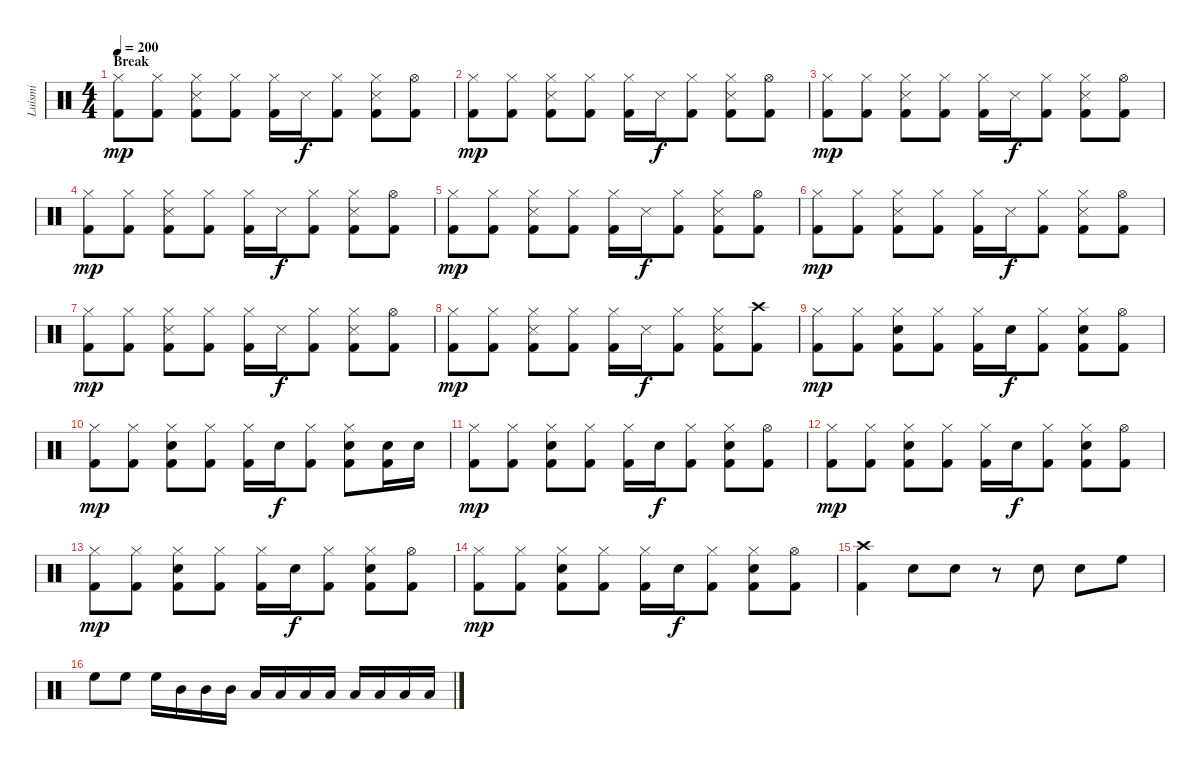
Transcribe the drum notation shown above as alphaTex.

\track ("Luismi" "Luismi") {instrument percussion}
\staff {score}
\articulation defaults
\ts (4 4)
\section ("" "Break")
\tempo 200
\clef neutral
\ks c
("Hi-Hat (closed)" "Kick (hit) 2").8{dy mp volume 11} ("Hi-Hat (closed)" "Kick (hit) 2").8 ("Hi-Hat (closed)" "Snare (side stick) 3" "Kick (hit) 2").8 ("Hi-Hat (closed)" "Kick (hit) 2").8 ("Hi-Hat (closed)" "Kick (hit) 2").16 "Snare (side stick) 3".16{dy f} ("Hi-Hat (closed)" "Kick (hit) 2").8 ("Hi-Hat (closed)" "Snare (side stick) 3" "Kick (hit) 2").8 ("Hi-Hat (open)" "Kick (hit) 2").8 |
("Hi-Hat (closed)" "Kick (hit) 2").8{dy mp} ("Hi-Hat (closed)" "Kick (hit) 2").8 ("Hi-Hat (closed)" "Snare (side stick) 3" "Kick (hit) 2").8 ("Hi-Hat (closed)" "Kick (hit) 2").8 ("Hi-Hat (closed)" "Kick (hit) 2").16 "Snare (side stick) 3".16{dy f} ("Hi-Hat (closed)" "Kick (hit) 2").8 ("Hi-Hat (closed)" "Snare (side stick) 3" "Kick (hit) 2").8 ("Hi-Hat (open)" "Kick (hit) 2").8 |
("Hi-Hat (closed)" "Kick (hit) 2").8{dy mp} ("Hi-Hat (closed)" "Kick (hit) 2").8 ("Hi-Hat (closed)" "Snare (side stick) 3" "Kick (hit) 2").8 ("Hi-Hat (closed)" "Kick (hit) 2").8 ("Hi-Hat (closed)" "Kick (hit) 2").16 "Snare (side stick) 3".16{dy f} ("Hi-Hat (closed)" "Kick (hit) 2").8 ("Hi-Hat (closed)" "Snare (side stick) 3" "Kick (hit) 2").8 ("Hi-Hat (open)" "Kick (hit) 2").8 |
("Hi-Hat (closed)" "Kick (hit) 2").8{dy mp} ("Hi-Hat (closed)" "Kick (hit) 2").8 ("Hi-Hat (closed)" "Snare (side stick) 3" "Kick (hit) 2").8 ("Hi-Hat (closed)" "Kick (hit) 2").8 ("Hi-Hat (closed)" "Kick (hit) 2").16 "Snare (side stick) 3".16{dy f} ("Hi-Hat (closed)" "Kick (hit) 2").8 ("Hi-Hat (closed)" "Snare (side stick) 3" "Kick (hit) 2").8 ("Hi-Hat (open)" "Kick (hit) 2").8 |
("Hi-Hat (closed)" "Kick (hit) 2").8{dy mp} ("Hi-Hat (closed)" "Kick (hit) 2").8 ("Hi-Hat (closed)" "Snare (side stick) 3" "Kick (hit) 2").8 ("Hi-Hat (closed)" "Kick (hit) 2").8 ("Hi-Hat (closed)" "Kick (hit) 2").16 "Snare (side stick) 3".16{dy f} ("Hi-Hat (closed)" "Kick (hit) 2").8 ("Hi-Hat (closed)" "Snare (side stick) 3" "Kick (hit) 2").8 ("Hi-Hat (open)" "Kick (hit) 2").8 |
("Hi-Hat (closed)" "Kick (hit) 2").8{dy mp} ("Hi-Hat (closed)" "Kick (hit) 2").8 ("Hi-Hat (closed)" "Snare (side stick) 3" "Kick (hit) 2").8 ("Hi-Hat (closed)" "Kick (hit) 2").8 ("Hi-Hat (closed)" "Kick (hit) 2").16 "Snare (side stick) 3".16{dy f} ("Hi-Hat (closed)" "Kick (hit) 2").8 ("Hi-Hat (closed)" "Snare (side stick) 3" "Kick (hit) 2").8 ("Hi-Hat (open)" "Kick (hit) 2").8 |
("Hi-Hat (closed)" "Kick (hit) 2").8{dy mp} ("Hi-Hat (closed)" "Kick (hit) 2").8 ("Hi-Hat (closed)" "Snare (side stick) 3" "Kick (hit) 2").8 ("Hi-Hat (closed)" "Kick (hit) 2").8 ("Hi-Hat (closed)" "Kick (hit) 2").16 "Snare (side stick) 3".16{dy f} ("Hi-Hat (closed)" "Kick (hit) 2").8 ("Hi-Hat (closed)" "Snare (side stick) 3" "Kick (hit) 2").8 ("Hi-Hat (open)" "Kick (hit) 2").8 |
("Hi-Hat (closed)" "Kick (hit) 2").8{dy mp} ("Hi-Hat (closed)" "Kick (hit) 2").8 ("Hi-Hat (closed)" "Snare (side stick) 3" "Kick (hit) 2").8 ("Hi-Hat (closed)" "Kick (hit) 2").8 ("Hi-Hat (closed)" "Kick (hit) 2").16 "Snare (side stick) 3".16{dy f} ("Hi-Hat (closed)" "Kick (hit) 2").8 ("Hi-Hat (closed)" "Snare (side stick) 3" "Kick (hit) 2").8 ("Crash high (hit)" "Kick (hit) 2").8 |
("Hi-Hat (closed)" "Kick (hit) 2").8{dy mp volume 13} ("Hi-Hat (closed)" "Kick (hit) 2").8 ("Hi-Hat (closed)" "Electric Snare (hit)" "Kick (hit) 2").8 ("Hi-Hat (closed)" "Kick (hit) 2").8 ("Hi-Hat (closed)" "Kick (hit) 2").16 "Electric Snare (hit)".16{dy f} ("Hi-Hat (closed)" "Kick (hit) 2").8 ("Hi-Hat (closed)" "Electric Snare (hit)" "Kick (hit) 2").8 ("Hi-Hat (open)" "Kick (hit) 2").8 |
("Hi-Hat (closed)" "Kick (hit) 2").8{dy mp} ("Hi-Hat (closed)" "Kick (hit) 2").8 ("Hi-Hat (closed)" "Electric Snare (hit)" "Kick (hit) 2").8 ("Hi-Hat (closed)" "Kick (hit) 2").8 ("Hi-Hat (closed)" "Kick (hit) 2").16 "Electric Snare (hit)".16{dy f} ("Hi-Hat (closed)" "Kick (hit) 2").8 ("Hi-Hat (closed)" "Electric Snare (hit)" "Kick (hit) 2").8 ("Electric Snare (hit)" "Kick (hit) 2").16 "Electric Snare (hit)".16 |
("Hi-Hat (closed)" "Kick (hit) 2").8{dy mp} ("Hi-Hat (closed)" "Kick (hit) 2").8 ("Hi-Hat (closed)" "Electric Snare (hit)" "Kick (hit) 2").8 ("Hi-Hat (closed)" "Kick (hit) 2").8 ("Hi-Hat (closed)" "Kick (hit) 2").16 "Electric Snare (hit)".16{dy f} ("Hi-Hat (closed)" "Kick (hit) 2").8 ("Hi-Hat (closed)" "Electric Snare (hit)" "Kick (hit) 2").8 ("Hi-Hat (open)" "Kick (hit) 2").8 |
("Hi-Hat (closed)" "Kick (hit) 2").8{dy mp} ("Hi-Hat (closed)" "Kick (hit) 2").8 ("Hi-Hat (closed)" "Electric Snare (hit)" "Kick (hit) 2").8 ("Hi-Hat (closed)" "Kick (hit) 2").8 ("Hi-Hat (closed)" "Kick (hit) 2").16 "Electric Snare (hit)".16{dy f} ("Hi-Hat (closed)" "Kick (hit) 2").8 ("Hi-Hat (closed)" "Electric Snare (hit)" "Kick (hit) 2").8 ("Hi-Hat (open)" "Kick (hit) 2").8 |
("Hi-Hat (closed)" "Kick (hit) 2").8{dy mp} ("Hi-Hat (closed)" "Kick (hit) 2").8 ("Hi-Hat (closed)" "Electric Snare (hit)" "Kick (hit) 2").8 ("Hi-Hat (closed)" "Kick (hit) 2").8 ("Hi-Hat (closed)" "Kick (hit) 2").16 "Electric Snare (hit)".16{dy f} ("Hi-Hat (closed)" "Kick (hit) 2").8 ("Hi-Hat (closed)" "Electric Snare (hit)" "Kick (hit) 2").8 ("Hi-Hat (open)" "Kick (hit) 2").8 |
("Hi-Hat (closed)" "Kick (hit) 2").8{dy mp} ("Hi-Hat (closed)" "Kick (hit) 2").8 ("Hi-Hat (closed)" "Electric Snare (hit)" "Kick (hit) 2").8 ("Hi-Hat (closed)" "Kick (hit) 2").8 ("Hi-Hat (closed)" "Kick (hit) 2").16 "Electric Snare (hit)".16{dy f} ("Hi-Hat (closed)" "Kick (hit) 2").8 ("Hi-Hat (closed)" "Electric Snare (hit)" "Kick (hit) 2").8 ("Hi-Hat (open)" "Kick (hit) 2").8 |
("Crash high (hit)" "Kick (hit) 2").4 "Electric Snare (hit)".8 "Electric Snare (hit)".8 r.8 "Electric Snare (hit)".8 "Electric Snare (hit)".8 "High Floor Tom (hit)".8 |
"High Floor Tom (hit)".8 "High Floor Tom (hit)".8 "High Floor Tom (hit)".16 "Mid Tom (hit)".16 "Mid Tom (hit)".16 "Mid Tom (hit)".16 "Low Tom (hit)".16 "Low Tom (hit)".16 "Low Tom (hit)".16 "Low Floor Tom (hit)".16 "Low Floor Tom (hit)".16 "Low Floor Tom (hit)".16 "Low Floor Tom (hit)".16 "Low Floor Tom (hit)".16
